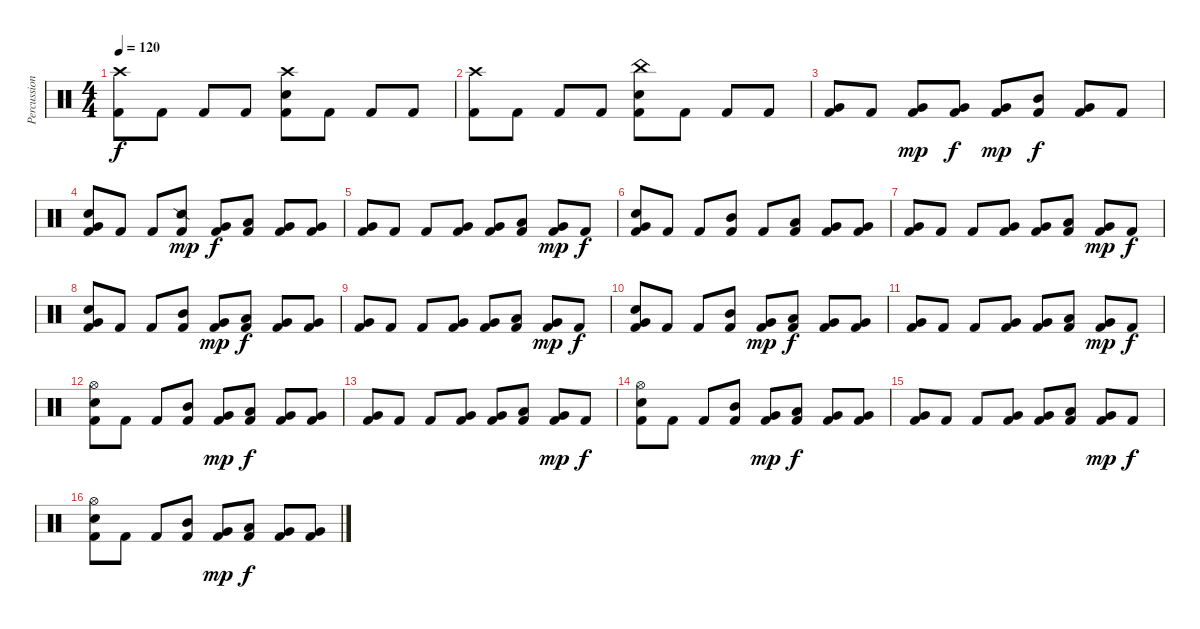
\track ("Percussion" "Percussion") {instrument percussion}
\staff {score}
\articulation defaults
\ts (4 4)
\tempo 120
\clef neutral
\ks c
("Crash high (hit)" "Kick (hit) 2").8{dy f} "Kick (hit) 2".8 "Kick (hit) 2".8 "Kick (hit) 2".8 ("Crash high (hit)" "Electric Snare (hit)" "Kick (hit) 2").8 "Kick (hit) 2".8 "Kick (hit) 2".8 "Kick (hit) 2".8 |
("Crash high (hit)" "Kick (hit) 2").8 "Kick (hit) 2".8 "Kick (hit) 2".8 "Kick (hit) 2".8 ("China (hit)" "Electric Snare (hit)" "Kick (hit) 2").8 "Kick (hit) 2".8 "Kick (hit) 2".8 "Kick (hit) 2".8 |
("Very Low Tom (hit)" "Kick (hit) 2").8 "Kick (hit) 2".8 ("Very Low Tom (hit)" "Kick (hit) 2").8{dy mp} ("Very Low Tom (hit)" "Kick (hit) 2").8{dy f} ("Very Low Tom (hit)" "Kick (hit) 2").8{dy mp} ("Mid Tom (hit)" "Kick (hit) 2").8{dy f} ("Very Low Tom (hit)" "Kick (hit) 2").8 "Kick (hit) 2".8 |
("Electric Snare (hit)" "Very Low Tom (hit)" "Kick (hit) 2").8 "Kick (hit) 2".8 "Kick (hit) 2".8 ("Snare (side stick) 2" "Kick (hit) 2").8{dy mp} ("Very Low Tom (hit)" "Kick (hit) 2").8{dy f} ("Low Tom (hit)" "Kick (hit) 2").8 ("Very Low Tom (hit)" "Kick (hit) 2").8 ("Very Low Tom (hit)" "Kick (hit) 2").8 |
("Very Low Tom (hit)" "Kick (hit) 2").8 "Kick (hit) 2".8 "Kick (hit) 2".8 ("Very Low Tom (hit)" "Kick (hit) 2").8 ("Very Low Tom (hit)" "Kick (hit) 2").8 ("Low Tom (hit)" "Kick (hit) 2").8 ("Very Low Tom (hit)" "Kick (hit) 2").8{dy mp} "Kick (hit) 2".8{dy f} |
("Electric Snare (hit)" "Very Low Tom (hit)" "Kick (hit) 2").8 "Kick (hit) 2".8 "Kick (hit) 2".8 ("Mid Tom (hit)" "Kick (hit) 2").8 "Kick (hit) 2".8 ("Low Tom (hit)" "Kick (hit) 2").8 ("Very Low Tom (hit)" "Kick (hit) 2").8 ("Very Low Tom (hit)" "Kick (hit) 2").8 |
("Very Low Tom (hit)" "Kick (hit) 2").8 "Kick (hit) 2".8 "Kick (hit) 2".8 ("Very Low Tom (hit)" "Kick (hit) 2").8 ("Very Low Tom (hit)" "Kick (hit) 2").8 ("Low Tom (hit)" "Kick (hit) 2").8 ("Very Low Tom (hit)" "Kick (hit) 2").8{dy mp} "Kick (hit) 2".8{dy f} |
("Electric Snare (hit)" "Very Low Tom (hit)" "Kick (hit) 2").8 "Kick (hit) 2".8 "Kick (hit) 2".8 ("Mid Tom (hit)" "Kick (hit) 2").8 ("Very Low Tom (hit)" "Kick (hit) 2").8{dy mp} ("Low Tom (hit)" "Kick (hit) 2").8{dy f} ("Very Low Tom (hit)" "Kick (hit) 2").8 ("Very Low Tom (hit)" "Kick (hit) 2").8 |
("Very Low Tom (hit)" "Kick (hit) 2").8 "Kick (hit) 2".8 "Kick (hit) 2".8 ("Very Low Tom (hit)" "Kick (hit) 2").8 ("Very Low Tom (hit)" "Kick (hit) 2").8 ("Low Tom (hit)" "Kick (hit) 2").8 ("Very Low Tom (hit)" "Kick (hit) 2").8{dy mp} "Kick (hit) 2".8{dy f} |
("Electric Snare (hit)" "Very Low Tom (hit)" "Kick (hit) 2").8 "Kick (hit) 2".8 "Kick (hit) 2".8 ("Mid Tom (hit)" "Kick (hit) 2").8 ("Very Low Tom (hit)" "Kick (hit) 2").8{dy mp} ("Low Tom (hit)" "Kick (hit) 2").8{dy f} ("Very Low Tom (hit)" "Kick (hit) 2").8 ("Very Low Tom (hit)" "Kick (hit) 2").8 |
("Very Low Tom (hit)" "Kick (hit) 2").8 "Kick (hit) 2".8 "Kick (hit) 2".8 ("Very Low Tom (hit)" "Kick (hit) 2").8 ("Very Low Tom (hit)" "Kick (hit) 2").8 ("Low Tom (hit)" "Kick (hit) 2").8 ("Very Low Tom (hit)" "Kick (hit) 2").8{dy mp} "Kick (hit) 2".8{dy f} |
("Hi-Hat (open)" "Electric Snare (hit)" "Kick (hit) 2").8 "Kick (hit) 2".8 "Kick (hit) 2".8 ("Mid Tom (hit)" "Kick (hit) 2").8 ("Very Low Tom (hit)" "Kick (hit) 2").8{dy mp} ("Low Tom (hit)" "Kick (hit) 2").8{dy f} ("Very Low Tom (hit)" "Kick (hit) 2").8 ("Very Low Tom (hit)" "Kick (hit) 2").8 |
("Very Low Tom (hit)" "Kick (hit) 2").8 "Kick (hit) 2".8 "Kick (hit) 2".8 ("Very Low Tom (hit)" "Kick (hit) 2").8 ("Very Low Tom (hit)" "Kick (hit) 2").8 ("Low Tom (hit)" "Kick (hit) 2").8 ("Very Low Tom (hit)" "Kick (hit) 2").8{dy mp} "Kick (hit) 2".8{dy f} |
("Hi-Hat (open)" "Electric Snare (hit)" "Kick (hit) 2").8 "Kick (hit) 2".8 "Kick (hit) 2".8 ("Mid Tom (hit)" "Kick (hit) 2").8 ("Very Low Tom (hit)" "Kick (hit) 2").8{dy mp} ("Low Tom (hit)" "Kick (hit) 2").8{dy f} ("Very Low Tom (hit)" "Kick (hit) 2").8 ("Very Low Tom (hit)" "Kick (hit) 2").8 |
("Very Low Tom (hit)" "Kick (hit) 2").8 "Kick (hit) 2".8 "Kick (hit) 2".8 ("Very Low Tom (hit)" "Kick (hit) 2").8 ("Very Low Tom (hit)" "Kick (hit) 2").8 ("Low Tom (hit)" "Kick (hit) 2").8 ("Very Low Tom (hit)" "Kick (hit) 2").8{dy mp} "Kick (hit) 2".8{dy f} |
("Hi-Hat (open)" "Electric Snare (hit)" "Kick (hit) 2").8 "Kick (hit) 2".8 "Kick (hit) 2".8 ("Mid Tom (hit)" "Kick (hit) 2").8 ("Very Low Tom (hit)" "Kick (hit) 2").8{dy mp} ("Low Tom (hit)" "Kick (hit) 2").8{dy f} ("Very Low Tom (hit)" "Kick (hit) 2").8 ("Very Low Tom (hit)" "Kick (hit) 2").8
